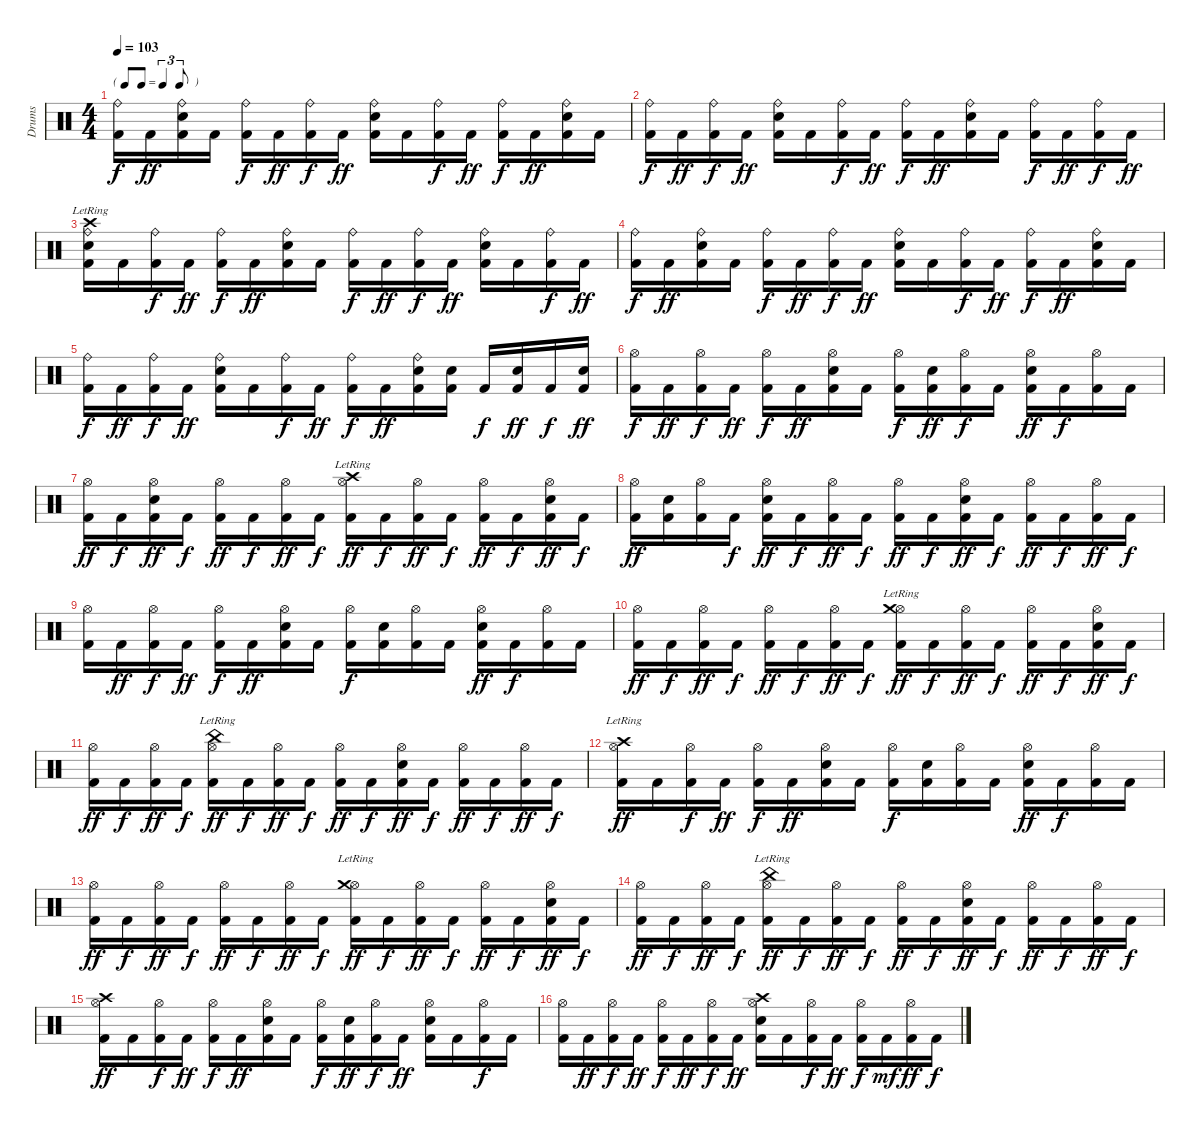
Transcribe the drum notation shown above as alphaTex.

\track ("Drums" "Drums") {instrument percussion}
\staff {score}
\articulation defaults
\ts (4 4)
\tf triplet8th
\tempo 103
\clef neutral
\ks c
("Ride (bell)" "Kick (hit) 2").16{dy f} "Kick (hit) 2".16{dy ff} ("Ride (bell)" "Electric Snare (hit)" "Kick (hit) 2").16 "Kick (hit) 2".16 ("Ride (bell)" "Kick (hit) 2").16{dy f} "Kick (hit) 2".16{dy ff} ("Ride (bell)" "Kick (hit) 2").16{dy f} "Kick (hit) 2".16{dy ff} ("Ride (bell)" "Electric Snare (hit)" "Kick (hit) 2").16 "Kick (hit) 2".16 ("Ride (bell)" "Kick (hit) 2").16{dy f} "Kick (hit) 2".16{dy ff} ("Ride (bell)" "Kick (hit) 2").16{dy f} "Kick (hit) 2".16{dy ff} ("Ride (bell)" "Electric Snare (hit)" "Kick (hit) 2").16 "Kick (hit) 2".16 |
("Ride (bell)" "Kick (hit) 2").16{dy f} "Kick (hit) 2".16{dy ff} ("Ride (bell)" "Kick (hit) 2").16{dy f} "Kick (hit) 2".16{dy ff} ("Ride (bell)" "Electric Snare (hit)" "Kick (hit) 2").16 "Kick (hit) 2".16 ("Ride (bell)" "Kick (hit) 2").16{dy f} "Kick (hit) 2".16{dy ff} ("Ride (bell)" "Kick (hit) 2").16{dy f} "Kick (hit) 2".16{dy ff} ("Ride (bell)" "Electric Snare (hit)" "Kick (hit) 2").16 "Kick (hit) 2".16 ("Ride (bell)" "Kick (hit) 2").16{dy f} "Kick (hit) 2".16{dy ff} ("Ride (bell)" "Kick (hit) 2").16{dy f} "Kick (hit) 2".16{dy ff} |
("Ride (bell)"{lr} "Crash high (hit)"{lr} "Electric Snare (hit)" "Kick (hit) 2").16 "Kick (hit) 2".16 ("Ride (bell)" "Kick (hit) 2").16{dy f} "Kick (hit) 2".16{dy ff} ("Ride (bell)" "Kick (hit) 2").16{dy f} "Kick (hit) 2".16{dy ff} ("Ride (bell)" "Electric Snare (hit)" "Kick (hit) 2").16 "Kick (hit) 2".16 ("Ride (bell)" "Kick (hit) 2").16{dy f} "Kick (hit) 2".16{dy ff} ("Ride (bell)" "Kick (hit) 2").16{dy f} "Kick (hit) 2".16{dy ff} ("Ride (bell)" "Electric Snare (hit)" "Kick (hit) 2").16 "Kick (hit) 2".16 ("Ride (bell)" "Kick (hit) 2").16{dy f} "Kick (hit) 2".16{dy ff} |
("Ride (bell)" "Kick (hit) 2").16{dy f} "Kick (hit) 2".16{dy ff} ("Ride (bell)" "Electric Snare (hit)" "Kick (hit) 2").16 "Kick (hit) 2".16 ("Ride (bell)" "Kick (hit) 2").16{dy f} "Kick (hit) 2".16{dy ff} ("Ride (bell)" "Kick (hit) 2").16{dy f} "Kick (hit) 2".16{dy ff} ("Ride (bell)" "Electric Snare (hit)" "Kick (hit) 2").16 "Kick (hit) 2".16 ("Ride (bell)" "Kick (hit) 2").16{dy f} "Kick (hit) 2".16{dy ff} ("Ride (bell)" "Kick (hit) 2").16{dy f} "Kick (hit) 2".16{dy ff} ("Ride (bell)" "Electric Snare (hit)" "Kick (hit) 2").16 "Kick (hit) 2".16 |
("Ride (bell)" "Kick (hit) 2").16{dy f} "Kick (hit) 2".16{dy ff} ("Ride (bell)" "Kick (hit) 2").16{dy f} "Kick (hit) 2".16{dy ff} ("Ride (bell)" "Electric Snare (hit)" "Kick (hit) 2").16 "Kick (hit) 2".16 ("Ride (bell)" "Kick (hit) 2").16{dy f} "Kick (hit) 2".16{dy ff} ("Ride (bell)" "Kick (hit) 2").16{dy f} "Kick (hit) 2".16{dy ff} ("Ride (bell)" "Electric Snare (hit)" "Kick (hit) 2").16 ("Electric Snare (hit)" "Kick (hit) 2").16 "Kick (hit) 2".16{dy f} ("Electric Snare (hit)" "Kick (hit) 2").16{dy ff} "Kick (hit) 2".16{dy f} ("Electric Snare (hit)" "Kick (hit) 2").16{dy ff} |
("Hi-Hat (open)" "Kick (hit) 2").16{dy f} "Kick (hit) 2".16{dy ff} ("Hi-Hat (open)" "Kick (hit) 2").16{dy f} "Kick (hit) 2".16{dy ff} ("Hi-Hat (open)" "Kick (hit) 2").16{dy f} "Kick (hit) 2".16{dy ff} ("Hi-Hat (open)" "Electric Snare (hit)" "Kick (hit) 2").16 "Kick (hit) 2".16 ("Hi-Hat (open)" "Kick (hit) 2").16{dy f} ("Electric Snare (hit)" "Kick (hit) 2").16{dy ff} ("Hi-Hat (open)" "Kick (hit) 2").16{dy f} "Kick (hit) 2".16 ("Hi-Hat (open)" "Electric Snare (hit)" "Kick (hit) 2").16{dy ff} "Kick (hit) 2".16{dy f} ("Hi-Hat (open)" "Kick (hit) 2").16 "Kick (hit) 2".16 |
("Hi-Hat (open)" "Kick (hit) 2").16{dy ff} "Kick (hit) 2".16{dy f} ("Hi-Hat (open)" "Electric Snare (hit)" "Kick (hit) 2").16{dy ff} "Kick (hit) 2".16{dy f} ("Hi-Hat (open)" "Kick (hit) 2").16{dy ff} "Kick (hit) 2".16{dy f} ("Hi-Hat (open)" "Kick (hit) 2").16{dy ff} "Kick (hit) 2".16{dy f} ("Hi-Hat (open)" "Crash high (hit)"{lr} "Kick (hit) 2").16{dy ff} "Kick (hit) 2".16{dy f} ("Hi-Hat (open)" "Kick (hit) 2").16{dy ff} "Kick (hit) 2".16{dy f} ("Hi-Hat (open)" "Kick (hit) 2").16{dy ff} "Kick (hit) 2".16{dy f} ("Hi-Hat (open)" "Electric Snare (hit)" "Kick (hit) 2").16{dy ff} "Kick (hit) 2".16{dy f} |
("Hi-Hat (open)" "Kick (hit) 2").16{dy ff} ("Electric Snare (hit)" "Kick (hit) 2").16 ("Hi-Hat (open)" "Kick (hit) 2").16 "Kick (hit) 2".16{dy f} ("Hi-Hat (open)" "Electric Snare (hit)" "Kick (hit) 2").16{dy ff} "Kick (hit) 2".16{dy f} ("Hi-Hat (open)" "Kick (hit) 2").16{dy ff} "Kick (hit) 2".16{dy f} ("Hi-Hat (open)" "Kick (hit) 2").16{dy ff} "Kick (hit) 2".16{dy f} ("Hi-Hat (open)" "Electric Snare (hit)" "Kick (hit) 2").16{dy ff} "Kick (hit) 2".16{dy f} ("Hi-Hat (open)" "Kick (hit) 2").16{dy ff} "Kick (hit) 2".16{dy f} ("Hi-Hat (open)" "Kick (hit) 2").16{dy ff} "Kick (hit) 2".16{dy f} |
("Hi-Hat (open)" "Kick (hit) 2").16 "Kick (hit) 2".16{dy ff} ("Hi-Hat (open)" "Kick (hit) 2").16{dy f} "Kick (hit) 2".16{dy ff} ("Hi-Hat (open)" "Kick (hit) 2").16{dy f} "Kick (hit) 2".16{dy ff} ("Hi-Hat (open)" "Electric Snare (hit)" "Kick (hit) 2").16 "Kick (hit) 2".16 ("Hi-Hat (open)" "Kick (hit) 2").16{dy f} ("Electric Snare (hit)" "Kick (hit) 2").16 ("Hi-Hat (open)" "Kick (hit) 2").16 "Kick (hit) 2".16 ("Hi-Hat (open)" "Electric Snare (hit)" "Kick (hit) 2").16{dy ff} "Kick (hit) 2".16{dy f} ("Hi-Hat (open)" "Kick (hit) 2").16 "Kick (hit) 2".16 |
("Hi-Hat (open)" "Kick (hit) 2").16{dy ff} "Kick (hit) 2".16{dy f} ("Hi-Hat (open)" "Kick (hit) 2").16{dy ff} "Kick (hit) 2".16{dy f} ("Hi-Hat (open)" "Kick (hit) 2").16{dy ff} "Kick (hit) 2".16{dy f} ("Hi-Hat (open)" "Kick (hit) 2").16{dy ff} "Kick (hit) 2".16{dy f} ("Hi-Hat (open)" "Crash medium (hit)"{lr} "Kick (hit) 2").16{dy ff} "Kick (hit) 2".16{dy f} ("Hi-Hat (open)" "Kick (hit) 2").16{dy ff} "Kick (hit) 2".16{dy f} ("Hi-Hat (open)" "Kick (hit) 2").16{dy ff} "Kick (hit) 2".16{dy f} ("Hi-Hat (open)" "Electric Snare (hit)" "Kick (hit) 2").16{dy ff} "Kick (hit) 2".16{dy f} |
("Hi-Hat (open)" "Kick (hit) 2").16{dy ff} "Kick (hit) 2".16{dy f} ("Hi-Hat (open)" "Kick (hit) 2").16{dy ff} "Kick (hit) 2".16{dy f} ("Hi-Hat (open)" "China (hit)"{lr} "Kick (hit) 2").16{dy ff} "Kick (hit) 2".16{dy f} ("Hi-Hat (open)" "Kick (hit) 2").16{dy ff} "Kick (hit) 2".16{dy f} ("Hi-Hat (open)" "Kick (hit) 2").16{dy ff} "Kick (hit) 2".16{dy f} ("Hi-Hat (open)" "Electric Snare (hit)" "Kick (hit) 2").16{dy ff} "Kick (hit) 2".16{dy f} ("Hi-Hat (open)" "Kick (hit) 2").16{dy ff} "Kick (hit) 2".16{dy f} ("Hi-Hat (open)" "Kick (hit) 2").16{dy ff} "Kick (hit) 2".16{dy f} |
("Hi-Hat (open)" "Crash high (hit)"{lr} "Kick (hit) 2").16{dy ff} "Kick (hit) 2".16 ("Hi-Hat (open)" "Kick (hit) 2").16{dy f} "Kick (hit) 2".16{dy ff} ("Hi-Hat (open)" "Kick (hit) 2").16{dy f} "Kick (hit) 2".16{dy ff} ("Hi-Hat (open)" "Electric Snare (hit)" "Kick (hit) 2").16 "Kick (hit) 2".16 ("Hi-Hat (open)" "Kick (hit) 2").16{dy f} ("Electric Snare (hit)" "Kick (hit) 2").16 ("Hi-Hat (open)" "Kick (hit) 2").16 "Kick (hit) 2".16 ("Hi-Hat (open)" "Electric Snare (hit)" "Kick (hit) 2").16{dy ff} "Kick (hit) 2".16{dy f} ("Hi-Hat (open)" "Kick (hit) 2").16 "Kick (hit) 2".16 |
("Hi-Hat (open)" "Kick (hit) 2").16{dy ff} "Kick (hit) 2".16{dy f} ("Hi-Hat (open)" "Kick (hit) 2").16{dy ff} "Kick (hit) 2".16{dy f} ("Hi-Hat (open)" "Kick (hit) 2").16{dy ff} "Kick (hit) 2".16{dy f} ("Hi-Hat (open)" "Kick (hit) 2").16{dy ff} "Kick (hit) 2".16{dy f} ("Hi-Hat (open)" "Crash medium (hit)"{lr} "Kick (hit) 2").16{dy ff} "Kick (hit) 2".16{dy f} ("Hi-Hat (open)" "Kick (hit) 2").16{dy ff} "Kick (hit) 2".16{dy f} ("Hi-Hat (open)" "Kick (hit) 2").16{dy ff} "Kick (hit) 2".16{dy f} ("Hi-Hat (open)" "Electric Snare (hit)" "Kick (hit) 2").16{dy ff} "Kick (hit) 2".16{dy f} |
("Hi-Hat (open)" "Kick (hit) 2").16{dy ff} "Kick (hit) 2".16{dy f} ("Hi-Hat (open)" "Kick (hit) 2").16{dy ff} "Kick (hit) 2".16{dy f} ("Hi-Hat (open)" "China (hit)"{lr} "Kick (hit) 2").16{dy ff} "Kick (hit) 2".16{dy f} ("Hi-Hat (open)" "Kick (hit) 2").16{dy ff} "Kick (hit) 2".16{dy f} ("Hi-Hat (open)" "Kick (hit) 2").16{dy ff} "Kick (hit) 2".16{dy f} ("Hi-Hat (open)" "Electric Snare (hit)" "Kick (hit) 2").16{dy ff} "Kick (hit) 2".16{dy f} ("Hi-Hat (open)" "Kick (hit) 2").16{dy ff} "Kick (hit) 2".16{dy f} ("Hi-Hat (open)" "Kick (hit) 2").16{dy ff} "Kick (hit) 2".16{dy f} |
("Hi-Hat (open)" "Crash high (hit)" "Kick (hit) 2").16{dy ff} "Kick (hit) 2".16 ("Hi-Hat (open)" "Kick (hit) 2").16{dy f} "Kick (hit) 2".16{dy ff} ("Hi-Hat (open)" "Kick (hit) 2").16{dy f} "Kick (hit) 2".16{dy ff} ("Hi-Hat (open)" "Electric Snare (hit)" "Kick (hit) 2").16 "Kick (hit) 2".16 ("Hi-Hat (open)" "Kick (hit) 2").16{dy f} ("Electric Snare (hit)" "Kick (hit) 2").16{dy ff} ("Hi-Hat (open)" "Kick (hit) 2").16{dy f} "Kick (hit) 2".16{dy ff} ("Hi-Hat (open)" "Electric Snare (hit)" "Kick (hit) 2").16 "Kick (hit) 2".16 ("Hi-Hat (open)" "Kick (hit) 2").16{dy f} "Kick (hit) 2".16 |
("Hi-Hat (open)" "Kick (hit) 2").16 "Kick (hit) 2".16{dy ff} ("Hi-Hat (open)" "Kick (hit) 2").16{dy f} "Kick (hit) 2".16{dy ff} ("Hi-Hat (open)" "Kick (hit) 2").16{dy f} "Kick (hit) 2".16{dy ff} ("Hi-Hat (open)" "Kick (hit) 2").16{dy f} "Kick (hit) 2".16{dy ff} ("Hi-Hat (open)" "Electric Snare (hit)" "Crash high (hit)" "Kick (hit) 2").16 "Kick (hit) 2".16 ("Hi-Hat (open)" "Kick (hit) 2").16{dy f} "Kick (hit) 2".16{dy ff} ("Hi-Hat (open)" "Kick (hit) 2").16{dy f} "Kick (hit) 2".16{dy mf} ("Hi-Hat (open)" "Kick (hit) 2").16{dy ff} "Kick (hit) 2".16{dy f}
